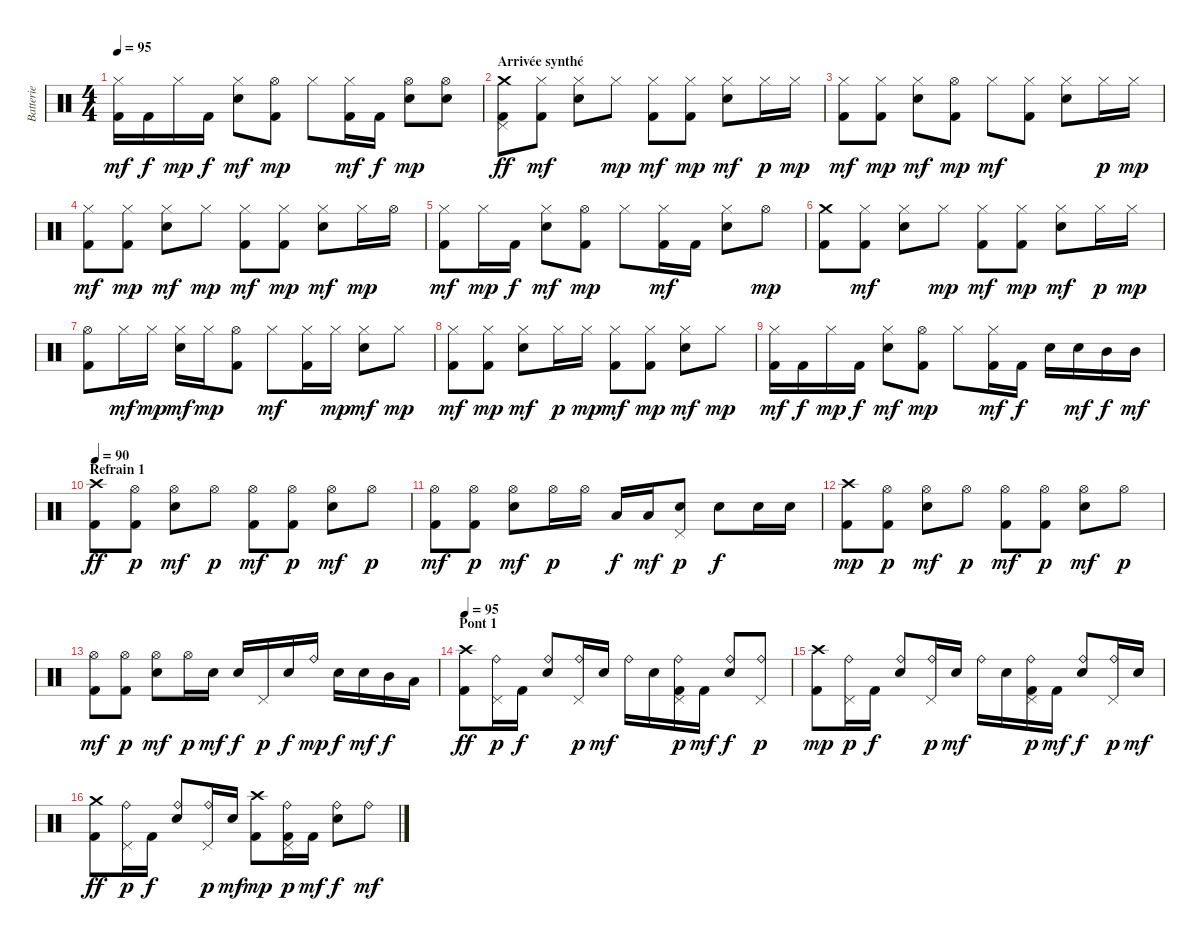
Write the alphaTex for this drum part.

\track ("Batterie" "Batterie") {instrument percussion}
\staff {score}
\articulation defaults
\ts (4 4)
\tempo 95
\clef neutral
\ks c
("Hi-Hat (closed)" "Kick (hit) 2").16{dy mf} "Kick (hit) 2".16{dy f} "Hi-Hat (closed)".16{dy mp} "Kick (hit) 2".16{dy f} ("Hi-Hat (closed)" "Electric Snare (hit)").8{dy mf} ("Hi-Hat (open)" "Kick (hit) 2").8{dy mp} "Hi-Hat (closed)".8 ("Hi-Hat (closed)" "Kick (hit) 2").16{dy mf} "Kick (hit) 2".16{dy f} ("Hi-Hat (open)" "Electric Snare (hit)").8{dy mp} ("Hi-Hat (open)" "Electric Snare (hit)").8 |
\section ("" "Arrivée synthé")
("Crash medium (hit)" "Pedal Hi-Hat (hit)" "Kick (hit) 2").8{dy ff} ("Hi-Hat (closed)" "Kick (hit) 2").8{dy mf} ("Hi-Hat (closed)" "Electric Snare (hit)").8 "Hi-Hat (closed)".8{dy mp} ("Hi-Hat (closed)" "Kick (hit) 2").8{dy mf} ("Hi-Hat (closed)" "Kick (hit) 2").8{dy mp} ("Hi-Hat (closed)" "Electric Snare (hit)").8{dy mf} "Hi-Hat (closed)".16{dy p} "Hi-Hat (closed)".16{dy mp} |
("Hi-Hat (closed)" "Kick (hit) 2").8{dy mf} ("Hi-Hat (closed)" "Kick (hit) 2").8{dy mp} ("Hi-Hat (closed)" "Electric Snare (hit)").8{dy mf} ("Hi-Hat (open)" "Kick (hit) 2").8{dy mp} "Hi-Hat (closed)".8{dy mf} ("Hi-Hat (closed)" "Kick (hit) 2").8 ("Hi-Hat (closed)" "Electric Snare (hit)").8 "Hi-Hat (closed)".16{dy p} "Hi-Hat (closed)".16{dy mp} |
("Hi-Hat (closed)" "Kick (hit) 2").8{dy mf} ("Hi-Hat (closed)" "Kick (hit) 2").8{dy mp} ("Hi-Hat (closed)" "Electric Snare (hit)").8{dy mf} "Hi-Hat (closed)".8{dy mp} ("Hi-Hat (closed)" "Kick (hit) 2").8{dy mf} ("Hi-Hat (closed)" "Kick (hit) 2").8{dy mp} ("Hi-Hat (closed)" "Electric Snare (hit)").8{dy mf} "Hi-Hat (closed)".16{dy mp} "Hi-Hat (open)".16 |
("Hi-Hat (closed)" "Kick (hit) 2").8{dy mf} "Hi-Hat (closed)".16{dy mp} "Kick (hit) 2".16{dy f} ("Hi-Hat (closed)" "Electric Snare (hit)").8{dy mf} ("Hi-Hat (open)" "Kick (hit) 2").8{dy mp} "Hi-Hat (closed)".8 ("Hi-Hat (closed)" "Kick (hit) 2").16{dy mf} "Kick (hit) 2".16 ("Hi-Hat (closed)" "Electric Snare (hit)").8 "Hi-Hat (open)".8{dy mp} |
("Crash medium (hit)" "Kick (hit) 2").8 ("Hi-Hat (closed)" "Kick (hit) 2").8{dy mf} ("Hi-Hat (closed)" "Electric Snare (hit)").8 "Hi-Hat (closed)".8{dy mp} ("Hi-Hat (closed)" "Kick (hit) 2").8{dy mf} ("Hi-Hat (closed)" "Kick (hit) 2").8{dy mp} ("Hi-Hat (closed)" "Electric Snare (hit)").8{dy mf} "Hi-Hat (closed)".16{dy p} "Hi-Hat (closed)".16{dy mp} |
("Hi-Hat (open)" "Kick (hit) 2").8 "Hi-Hat (closed)".16{dy mf} "Hi-Hat (closed)".16{dy mp} ("Hi-Hat (closed)" "Electric Snare (hit)").16{dy mf} "Hi-Hat (closed)".16{dy mp} ("Hi-Hat (open)" "Kick (hit) 2").8 "Hi-Hat (closed)".8{dy mf} ("Hi-Hat (closed)" "Kick (hit) 2").16 "Hi-Hat (closed)".16{dy mp} ("Hi-Hat (closed)" "Electric Snare (hit)").8{dy mf} "Hi-Hat (closed)".8{dy mp} |
("Hi-Hat (closed)" "Kick (hit) 2").8{dy mf} ("Hi-Hat (closed)" "Kick (hit) 2").8{dy mp} ("Hi-Hat (closed)" "Electric Snare (hit)").8{dy mf} "Hi-Hat (closed)".16{dy p} "Hi-Hat (closed)".16{dy mp} ("Hi-Hat (closed)" "Kick (hit) 2").8{dy mf} ("Hi-Hat (closed)" "Kick (hit) 2").8{dy mp} ("Hi-Hat (closed)" "Electric Snare (hit)").8{dy mf} "Hi-Hat (closed)".8{dy mp} |
("Hi-Hat (closed)" "Kick (hit) 2").16{dy mf} "Kick (hit) 2".16{dy f} "Hi-Hat (closed)".16{dy mp} "Kick (hit) 2".16{dy f} ("Hi-Hat (closed)" "Electric Snare (hit)").8{dy mf} ("Hi-Hat (open)" "Kick (hit) 2").8{dy mp} "Hi-Hat (closed)".8 ("Hi-Hat (closed)" "Kick (hit) 2").16{dy mf} "Kick (hit) 2".16{dy f} "Electric Snare (hit)".16 "Electric Snare (hit)".16{dy mf} "Mid Tom (hit)".16{dy f} "Mid Tom (hit)".16{dy mf} |
\section ("" "Refrain 1")
\tempo 90
("Crash high (hit)" "Kick (hit) 2").8{dy ff} ("Hi-Hat (open)" "Kick (hit) 2").8{dy p} ("Hi-Hat (open)" "Electric Snare (hit)").8{dy mf} "Hi-Hat (open)".8{dy p} ("Hi-Hat (open)" "Kick (hit) 2").8{dy mf} ("Hi-Hat (open)" "Kick (hit) 2").8{dy p} ("Hi-Hat (open)" "Electric Snare (hit)").8{dy mf} "Hi-Hat (open)".8{dy p} |
("Hi-Hat (open)" "Kick (hit) 2").8{dy mf} ("Hi-Hat (open)" "Kick (hit) 2").8{dy p} ("Hi-Hat (open)" "Electric Snare (hit)").8{dy mf} "Hi-Hat (open)".16{dy p} "Hi-Hat (open)".16 "Low Tom (hit)".16{dy f} "Low Tom (hit)".16{dy mf} ("Pedal Hi-Hat (hit)" "Electric Snare (hit)").8{dy p} "Electric Snare (hit)".8{dy f} "Electric Snare (hit)".16 "Electric Snare (hit)".16 |
("Crash high (hit)" "Kick (hit) 2").8{dy mp} ("Hi-Hat (open)" "Kick (hit) 2").8{dy p} ("Hi-Hat (open)" "Electric Snare (hit)").8{dy mf} "Hi-Hat (open)".8{dy p} ("Hi-Hat (open)" "Kick (hit) 2").8{dy mf} ("Hi-Hat (open)" "Kick (hit) 2").8{dy p} ("Hi-Hat (open)" "Electric Snare (hit)").8{dy mf} "Hi-Hat (open)".8{dy p} |
("Hi-Hat (open)" "Kick (hit) 2").8{dy mf} ("Hi-Hat (open)" "Kick (hit) 2").8{dy p} ("Hi-Hat (open)" "Electric Snare (hit)").8{dy mf} "Hi-Hat (open)".16{dy p} "Electric Snare (hit)".16{dy mf} "Electric Snare (hit)".16{dy f} "Pedal Hi-Hat (hit)".16{dy p} "Electric Snare (hit)".16{dy f} "Ride (bell)".16{dy mp} "Electric Snare (hit)".16{dy f} "Electric Snare (hit)".16{dy mf} "Mid Tom (hit)".16{dy f} "Low Tom (hit)".16 |
\section ("" "Pont 1")
\tempo 95
("Crash high (hit)" "Kick (hit) 2").8{dy ff} ("Ride (bell)" "Pedal Hi-Hat (hit)").16{dy p} "Kick (hit) 2".16{dy f} ("Ride (bell)" "Electric Snare (hit)").8 ("Ride (bell)" "Pedal Hi-Hat (hit)").16{dy p} "Electric Snare (hit)".16{dy mf} "Ride (bell)".16 "Electric Snare (hit)".16 ("Ride (bell)" "Pedal Hi-Hat (hit)" "Kick (hit) 2").16{dy p} "Kick (hit) 2".16{dy mf} ("Ride (bell)" "Electric Snare (hit)").8{dy f} ("Ride (bell)" "Pedal Hi-Hat (hit)").8{dy p} |
("Crash high (hit)" "Kick (hit) 2").8{dy mp} ("Ride (bell)" "Pedal Hi-Hat (hit)").16{dy p} "Kick (hit) 2".16{dy f} ("Ride (bell)" "Electric Snare (hit)").8 ("Ride (bell)" "Pedal Hi-Hat (hit)").16{dy p} "Electric Snare (hit)".16{dy mf} "Ride (bell)".16 "Electric Snare (hit)".16 ("Ride (bell)" "Pedal Hi-Hat (hit)" "Kick (hit) 2").16{dy p} "Kick (hit) 2".16{dy mf} ("Ride (bell)" "Electric Snare (hit)").8{dy f} ("Ride (bell)" "Pedal Hi-Hat (hit)").16{dy p} "Electric Snare (hit)".16{dy mf} |
("Crash medium (hit)" "Kick (hit) 2").8{dy ff} ("Ride (bell)" "Pedal Hi-Hat (hit)").16{dy p} "Kick (hit) 2".16{dy f} ("Ride (bell)" "Electric Snare (hit)").8 ("Ride (bell)" "Pedal Hi-Hat (hit)").16{dy p} "Electric Snare (hit)".16{dy mf} ("Crash high (hit)" "Kick (hit) 2").8{dy mp} ("Ride (bell)" "Pedal Hi-Hat (hit)" "Kick (hit) 2").16{dy p} "Kick (hit) 2".16{dy mf} ("Ride (bell)" "Electric Snare (hit)").8{dy f} "Ride (bell)".8{dy mf}
